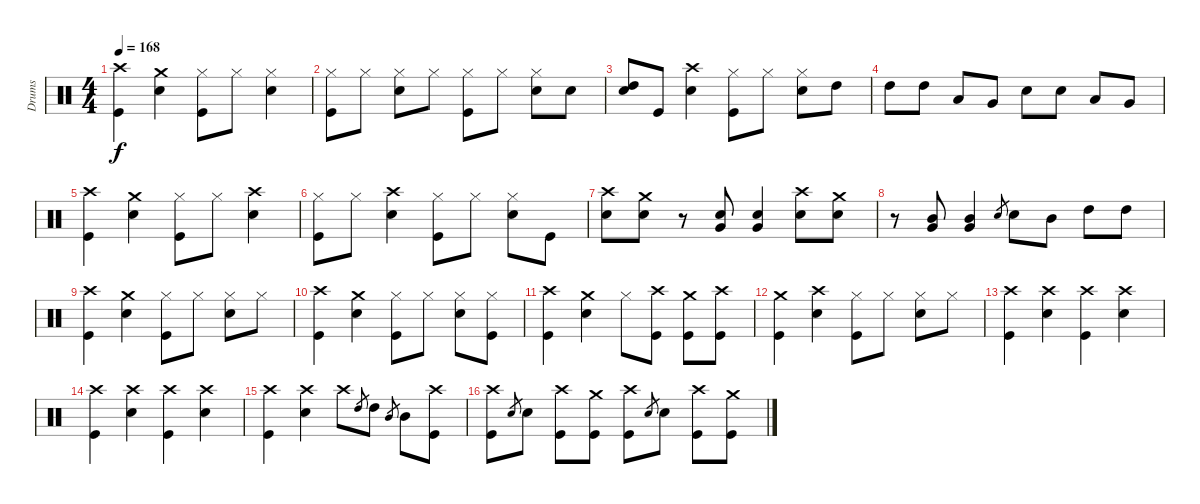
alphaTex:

\track ("Drums" "Drums") {instrument percussion}
\staff {score}
\articulation defaults
\ts (4 4)
\tempo 168
\clef neutral
\ks c
("Crash high (hit)" "Kick (hit)").4{dy f} ("Crash medium (hit)" "Electric Snare (hit)").4 ("Hi-Hat (closed)" "Kick (hit)").8 "Hi-Hat (closed)".8 ("Hi-Hat (closed)" "Electric Snare (hit)").4 |
("Hi-Hat (closed)" "Kick (hit)").8 "Hi-Hat (closed)".8 ("Hi-Hat (closed)" "Electric Snare (hit)").8 "Hi-Hat (closed)".8 ("Hi-Hat (closed)" "Kick (hit)").8 "Hi-Hat (closed)".8 ("Hi-Hat (closed)" "Electric Snare (hit)").8 "Electric Snare (hit)".8 |
("High Tom (hit)" "Electric Snare (hit)").8 "Kick (hit)".8 ("Crash high (hit)" "Electric Snare (hit)").4 ("Hi-Hat (closed)" "Kick (hit)").8 "Hi-Hat (closed)".8 ("Hi-Hat (closed)" "Electric Snare (hit)").8 "High Tom (hit)".8 |
"High Tom (hit)".8 "High Tom (hit)".8 "Low Floor Tom (hit)".8 "Very Low Tom (hit)".8 "Electric Snare (hit)".8 "Electric Snare (hit)".8 "Low Floor Tom (hit)".8 "Very Low Tom (hit)".8 |
("Crash high (hit)" "Kick (hit)").4 ("Crash medium (hit)" "Electric Snare (hit)").4 ("Hi-Hat (closed)" "Kick (hit)").8 "Hi-Hat (closed)".8 ("Crash high (hit)" "Electric Snare (hit)").4 |
("Hi-Hat (closed)" "Kick (hit)").8 "Hi-Hat (closed)".8 ("Crash high (hit)" "Electric Snare (hit)").4 ("Hi-Hat (closed)" "Kick (hit)").8 "Hi-Hat (closed)".8 ("Hi-Hat (closed)" "Electric Snare (hit)").8 "Kick (hit)".8 |
("Crash high (hit)" "Electric Snare (hit)").8 ("Crash medium (hit)" "Electric Snare (hit)").8 r.8 ("Electric Snare (hit)" "Very Low Tom (hit)").8 ("Electric Snare (hit)" "Very Low Tom (hit)").4 ("Crash high (hit)" "Electric Snare (hit)").8 ("Crash medium (hit)" "Electric Snare (hit)").8 |
r.8 ("Mid Tom (hit)" "Very Low Tom (hit)").8 ("Mid Tom (hit)" "Very Low Tom (hit)").4 "Electric Snare (hit)".8{gr} "Electric Snare (hit)".8 "Mid Tom (hit)".8 "High Tom (hit)".8 "High Tom (hit)".8 |
("Crash high (hit)" "Kick (hit)").4 ("Crash medium (hit)" "Electric Snare (hit)").4 ("Hi-Hat (closed)" "Kick (hit)").8 "Hi-Hat (closed)".8 ("Hi-Hat (closed)" "Electric Snare (hit)").8 "Hi-Hat (closed)".8 |
("Crash high (hit)" "Kick (hit)").4 ("Crash medium (hit)" "Electric Snare (hit)").4 ("Hi-Hat (closed)" "Kick (hit)").8 "Hi-Hat (closed)".8 ("Hi-Hat (closed)" "Electric Snare (hit)").8 ("Hi-Hat (closed)" "Kick (hit)").8 |
("Crash high (hit)" "Kick (hit)").4 ("Crash medium (hit)" "Electric Snare (hit)").4 "Hi-Hat (closed)".8 ("Crash high (hit)" "Kick (hit)").8 ("Crash medium (hit)" "Kick (hit)").8 ("Crash high (hit)" "Kick (hit)").8 |
("Crash medium (hit)" "Kick (hit)").4 ("Crash high (hit)" "Electric Snare (hit)").4 ("Hi-Hat (closed)" "Kick (hit)").8 "Hi-Hat (closed)".8 ("Hi-Hat (closed)" "Electric Snare (hit)").8 "Hi-Hat (closed)".8 |
("Crash high (hit)" "Kick (hit)").4 ("Crash high (hit)" "Electric Snare (hit)").4 ("Crash high (hit)" "Kick (hit)").4 ("Crash high (hit)" "Electric Snare (hit)").4 |
("Crash high (hit)" "Kick (hit)").4 ("Crash high (hit)" "Electric Snare (hit)").4 ("Crash high (hit)" "Kick (hit)").4 ("Crash high (hit)" "Electric Snare (hit)").4 |
("Crash high (hit)" "Kick (hit)").4 ("Crash high (hit)" "Electric Snare (hit)").4 "Crash high (hit)".8 "High Tom (hit)".8{gr} "High Tom (hit)".8 "Mid Tom (hit)".8{gr} "Mid Tom (hit)".8 ("Crash high (hit)" "Kick (hit)").8 |
("Crash high (hit)" "Kick (hit)").8 "Electric Snare (hit)".8{gr} "Electric Snare (hit)".8 ("Crash high (hit)" "Kick (hit)").8 ("Crash medium (hit)" "Kick (hit)").8 ("Crash high (hit)" "Kick (hit)").8 "Electric Snare (hit)".8{gr} "Electric Snare (hit)".8 ("Crash high (hit)" "Kick (hit)").8 ("Crash medium (hit)" "Kick (hit)").8
